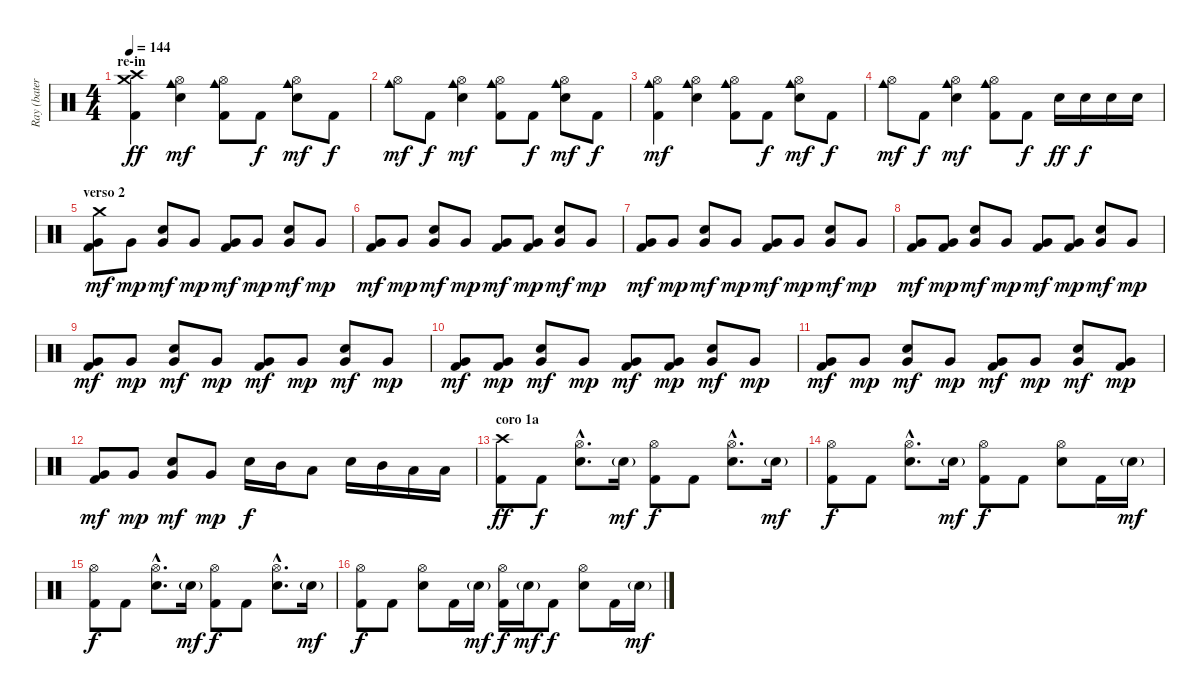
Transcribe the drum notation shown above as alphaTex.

\track ("Ray (batería)" "Ray (bater") {instrument percussion}
\staff {score}
\articulation defaults
\ts (4 4)
\section ("" "re-in")
\tempo 144
\clef neutral
\ks c
("Crash medium (hit)" "Crash high (hit)" "Kick (hit) 2").4{dy ff} ("Hi-Hat (open)" "Cowbell medium (hit)" "Snare (hit) 2").4{dy mf} ("Hi-Hat (open)" "Cowbell medium (hit)" "Kick (hit) 2").8 "Kick (hit) 2".8{dy f} ("Hi-Hat (open)" "Cowbell medium (hit)" "Snare (hit) 2").8{dy mf} "Kick (hit) 2".8{dy f} |
("Hi-Hat (open)" "Cowbell medium (hit)").8{dy mf} "Kick (hit) 2".8{dy f} ("Hi-Hat (open)" "Cowbell medium (hit)" "Snare (hit) 2").4{dy mf} ("Hi-Hat (open)" "Cowbell medium (hit)" "Kick (hit) 2").8 "Kick (hit) 2".8{dy f} ("Hi-Hat (open)" "Cowbell medium (hit)" "Snare (hit) 2").8{dy mf} "Kick (hit) 2".8{dy f} |
("Hi-Hat (open)" "Cowbell medium (hit)" "Kick (hit) 2").4{dy mf} ("Hi-Hat (open)" "Cowbell medium (hit)" "Snare (hit) 2").4 ("Hi-Hat (open)" "Cowbell medium (hit)" "Kick (hit) 2").8 "Kick (hit) 2".8{dy f} ("Hi-Hat (open)" "Cowbell medium (hit)" "Snare (hit) 2").8{dy mf} "Kick (hit) 2".8{dy f} |
("Hi-Hat (open)" "Cowbell medium (hit)").8{dy mf} "Kick (hit) 2".8{dy f} ("Hi-Hat (open)" "Cowbell medium (hit)" "Snare (hit) 2").4{dy mf} ("Hi-Hat (open)" "Cowbell medium (hit)" "Kick (hit) 2").8 "Kick (hit) 2".8{dy f} "Snare (hit) 2".16{dy ff} "Snare (hit) 2".16{dy f} "Snare (hit) 2".16 "Snare (hit) 2".16 |
\section ("" "verso 2")
("Crash medium (hit)" "Very Low Tom (hit)" "Kick (hit) 2").8{dy mf} "Very Low Tom (hit)".8{dy mp} ("Snare (hit) 2" "Very Low Tom (hit)").8{dy mf} "Very Low Tom (hit)".8{dy mp} ("Very Low Tom (hit)" "Kick (hit) 2").8{dy mf} "Very Low Tom (hit)".8{dy mp} ("Snare (hit) 2" "Very Low Tom (hit)").8{dy mf} "Very Low Tom (hit)".8{dy mp} |
("Very Low Tom (hit)" "Kick (hit) 2").8{dy mf} "Very Low Tom (hit)".8{dy mp} ("Snare (hit) 2" "Very Low Tom (hit)").8{dy mf} "Very Low Tom (hit)".8{dy mp} ("Very Low Tom (hit)" "Kick (hit) 2").8{dy mf} ("Very Low Tom (hit)" "Kick (hit) 2").8{dy mp} ("Snare (hit) 2" "Very Low Tom (hit)").8{dy mf} "Very Low Tom (hit)".8{dy mp} |
("Very Low Tom (hit)" "Kick (hit) 2").8{dy mf} "Very Low Tom (hit)".8{dy mp} ("Snare (hit) 2" "Very Low Tom (hit)").8{dy mf} "Very Low Tom (hit)".8{dy mp} ("Very Low Tom (hit)" "Kick (hit) 2").8{dy mf} "Very Low Tom (hit)".8{dy mp} ("Snare (hit) 2" "Very Low Tom (hit)").8{dy mf} "Very Low Tom (hit)".8{dy mp} |
("Very Low Tom (hit)" "Kick (hit) 2").8{dy mf} ("Very Low Tom (hit)" "Kick (hit) 2").8{dy mp} ("Snare (hit) 2" "Very Low Tom (hit)").8{dy mf} "Very Low Tom (hit)".8{dy mp} ("Very Low Tom (hit)" "Kick (hit) 2").8{dy mf} ("Very Low Tom (hit)" "Kick (hit) 2").8{dy mp} ("Snare (hit) 2" "Very Low Tom (hit)").8{dy mf} "Very Low Tom (hit)".8{dy mp} |
("Very Low Tom (hit)" "Kick (hit) 2").8{dy mf} "Very Low Tom (hit)".8{dy mp} ("Snare (hit) 2" "Very Low Tom (hit)").8{dy mf} "Very Low Tom (hit)".8{dy mp} ("Very Low Tom (hit)" "Kick (hit) 2").8{dy mf} "Very Low Tom (hit)".8{dy mp} ("Snare (hit) 2" "Very Low Tom (hit)").8{dy mf} "Very Low Tom (hit)".8{dy mp} |
("Very Low Tom (hit)" "Kick (hit) 2").8{dy mf} ("Very Low Tom (hit)" "Kick (hit) 2").8{dy mp} ("Snare (hit) 2" "Very Low Tom (hit)").8{dy mf} "Very Low Tom (hit)".8{dy mp} ("Very Low Tom (hit)" "Kick (hit) 2").8{dy mf} ("Very Low Tom (hit)" "Kick (hit) 2").8{dy mp} ("Snare (hit) 2" "Very Low Tom (hit)").8{dy mf} "Very Low Tom (hit)".8{dy mp} |
("Very Low Tom (hit)" "Kick (hit) 2").8{dy mf} "Very Low Tom (hit)".8{dy mp} ("Snare (hit) 2" "Very Low Tom (hit)").8{dy mf} "Very Low Tom (hit)".8{dy mp} ("Very Low Tom (hit)" "Kick (hit) 2").8{dy mf} "Very Low Tom (hit)".8{dy mp} ("Snare (hit) 2" "Very Low Tom (hit)").8{dy mf} ("Very Low Tom (hit)" "Kick (hit) 2").8{dy mp} |
("Very Low Tom (hit)" "Kick (hit) 2").8{dy mf} "Very Low Tom (hit)".8{dy mp} ("Snare (hit) 2" "Very Low Tom (hit)").8{dy mf} "Very Low Tom (hit)".8{dy mp} "Snare (hit) 2".16{dy f} "Mid Tom (hit)".16 "Low Tom (hit)".8 "Snare (hit) 2".16 "Mid Tom (hit)".16 "Low Tom (hit)".16 "Low Tom (hit)".16 |
\section ("" "coro 1a")
("Crash high (hit)" "Kick (hit) 2").8{dy ff} "Kick (hit) 2".8{dy f} ("Hi-Hat (open)"{hac} "Snare (hit) 2"{hac}).8{d} "Snare (hit) 2"{g}.16{dy mf} ("Hi-Hat (open)" "Kick (hit) 2").8{dy f} "Kick (hit) 2".8 ("Hi-Hat (open)"{hac} "Snare (hit) 2"{hac}).8{d} "Snare (hit) 2"{g}.16{dy mf} |
("Hi-Hat (open)" "Kick (hit) 2").8{dy f} "Kick (hit) 2".8 ("Hi-Hat (open)"{hac} "Snare (hit) 2"{hac}).8{d} "Snare (hit) 2"{g}.16{dy mf} ("Hi-Hat (open)" "Kick (hit) 2").8{dy f} "Kick (hit) 2".8 ("Hi-Hat (open)" "Snare (hit) 2").8 "Kick (hit) 2".16 "Snare (hit) 2"{g}.16{dy mf} |
("Hi-Hat (open)" "Kick (hit) 2").8{dy f} "Kick (hit) 2".8 ("Hi-Hat (open)"{hac} "Snare (hit) 2"{hac}).8{d} "Snare (hit) 2"{g}.16{dy mf} ("Hi-Hat (open)" "Kick (hit) 2").8{dy f} "Kick (hit) 2".8 ("Hi-Hat (open)"{hac} "Snare (hit) 2"{hac}).8{d} "Snare (hit) 2"{g}.16{dy mf} |
("Hi-Hat (open)" "Kick (hit) 2").8{dy f} "Kick (hit) 2".8 ("Hi-Hat (open)" "Snare (hit) 2").8 "Kick (hit) 2".16 "Snare (hit) 2"{g}.16{dy mf} ("Hi-Hat (open)" "Kick (hit) 2").16{dy f} "Snare (hit) 2"{g}.16{dy mf} "Kick (hit) 2".8{dy f} ("Hi-Hat (open)" "Snare (hit) 2").8 "Kick (hit) 2".16 "Snare (hit) 2"{g}.16{dy mf}
